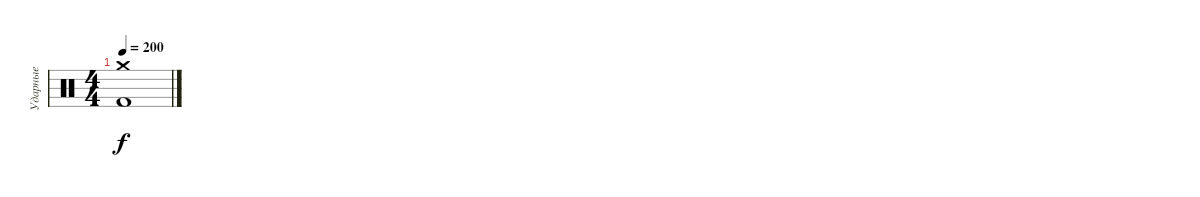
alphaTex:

\track ("Ударные" "Ударные") {instrument percussion}
\staff {score}
\articulation defaults
\ts (4 4)
\tempo 200
\clef neutral
\ks c
("Crash medium (hit)" "Kick (hit) 2").1{dy f}
